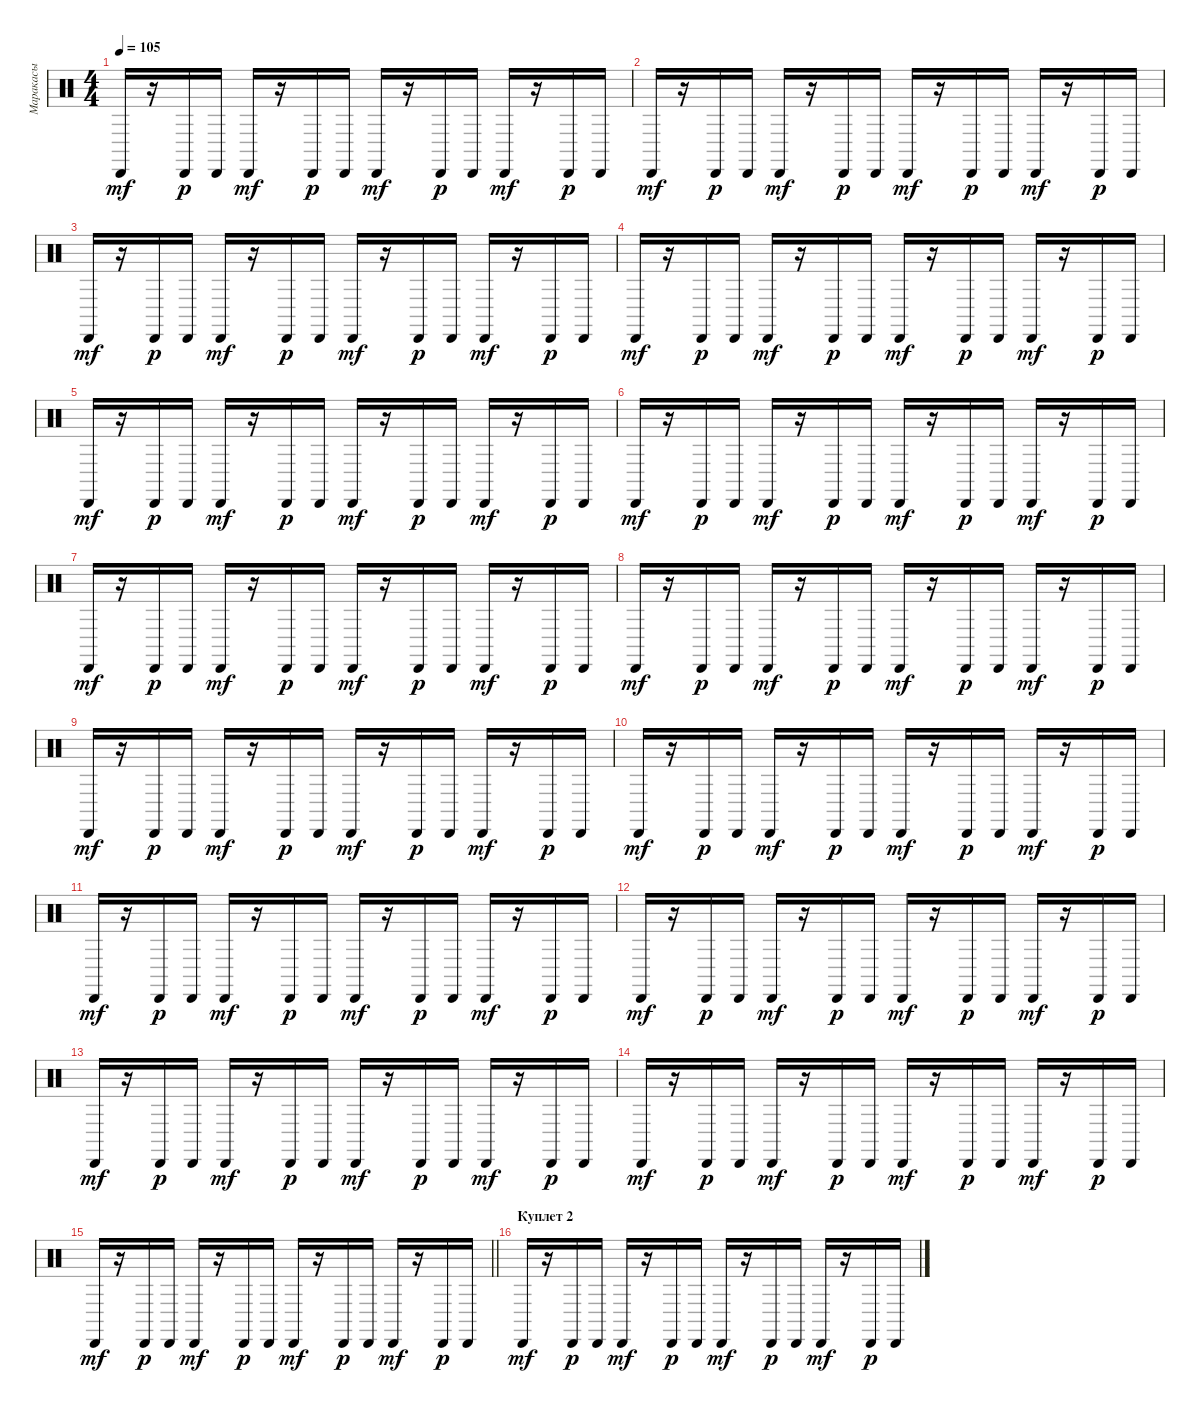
\track ("Маракасы" "Маракасы") {instrument percussion}
\staff {score}
\articulation defaults
\ts (4 4)
\tempo 105
\clef neutral
\ks c "Cabasa (hit)".16{dy mf}
r.16 "Cabasa (hit)".16{dy p} "Cabasa (hit)".16 "Cabasa (hit)".16{dy mf} r.16 "Cabasa (hit)".16{dy p} "Cabasa (hit)".16 "Cabasa (hit)".16{dy mf} r.16 "Cabasa (hit)".16{dy p} "Cabasa (hit)".16 "Cabasa (hit)".16{dy mf} r.16 "Cabasa (hit)".16{dy p} "Cabasa (hit)".16 |
"Cabasa (hit)".16{dy mf} r.16 "Cabasa (hit)".16{dy p} "Cabasa (hit)".16 "Cabasa (hit)".16{dy mf} r.16 "Cabasa (hit)".16{dy p} "Cabasa (hit)".16 "Cabasa (hit)".16{dy mf} r.16 "Cabasa (hit)".16{dy p} "Cabasa (hit)".16 "Cabasa (hit)".16{dy mf} r.16 "Cabasa (hit)".16{dy p} "Cabasa (hit)".16 |
"Cabasa (hit)".16{dy mf} r.16 "Cabasa (hit)".16{dy p} "Cabasa (hit)".16 "Cabasa (hit)".16{dy mf} r.16 "Cabasa (hit)".16{dy p} "Cabasa (hit)".16 "Cabasa (hit)".16{dy mf} r.16 "Cabasa (hit)".16{dy p} "Cabasa (hit)".16 "Cabasa (hit)".16{dy mf} r.16 "Cabasa (hit)".16{dy p} "Cabasa (hit)".16 |
"Cabasa (hit)".16{dy mf} r.16 "Cabasa (hit)".16{dy p} "Cabasa (hit)".16 "Cabasa (hit)".16{dy mf} r.16 "Cabasa (hit)".16{dy p} "Cabasa (hit)".16 "Cabasa (hit)".16{dy mf} r.16 "Cabasa (hit)".16{dy p} "Cabasa (hit)".16 "Cabasa (hit)".16{dy mf} r.16 "Cabasa (hit)".16{dy p} "Cabasa (hit)".16 |
"Cabasa (hit)".16{dy mf} r.16 "Cabasa (hit)".16{dy p} "Cabasa (hit)".16 "Cabasa (hit)".16{dy mf} r.16 "Cabasa (hit)".16{dy p} "Cabasa (hit)".16 "Cabasa (hit)".16{dy mf} r.16 "Cabasa (hit)".16{dy p} "Cabasa (hit)".16 "Cabasa (hit)".16{dy mf} r.16 "Cabasa (hit)".16{dy p} "Cabasa (hit)".16 |
"Cabasa (hit)".16{dy mf} r.16 "Cabasa (hit)".16{dy p} "Cabasa (hit)".16 "Cabasa (hit)".16{dy mf} r.16 "Cabasa (hit)".16{dy p} "Cabasa (hit)".16 "Cabasa (hit)".16{dy mf} r.16 "Cabasa (hit)".16{dy p} "Cabasa (hit)".16 "Cabasa (hit)".16{dy mf} r.16 "Cabasa (hit)".16{dy p} "Cabasa (hit)".16 |
"Cabasa (hit)".16{dy mf} r.16 "Cabasa (hit)".16{dy p} "Cabasa (hit)".16 "Cabasa (hit)".16{dy mf} r.16 "Cabasa (hit)".16{dy p} "Cabasa (hit)".16 "Cabasa (hit)".16{dy mf} r.16 "Cabasa (hit)".16{dy p} "Cabasa (hit)".16 "Cabasa (hit)".16{dy mf} r.16 "Cabasa (hit)".16{dy p} "Cabasa (hit)".16 |
"Cabasa (hit)".16{dy mf} r.16 "Cabasa (hit)".16{dy p} "Cabasa (hit)".16 "Cabasa (hit)".16{dy mf} r.16 "Cabasa (hit)".16{dy p} "Cabasa (hit)".16 "Cabasa (hit)".16{dy mf} r.16 "Cabasa (hit)".16{dy p} "Cabasa (hit)".16 "Cabasa (hit)".16{dy mf} r.16 "Cabasa (hit)".16{dy p} "Cabasa (hit)".16 |
"Cabasa (hit)".16{dy mf} r.16 "Cabasa (hit)".16{dy p} "Cabasa (hit)".16 "Cabasa (hit)".16{dy mf} r.16 "Cabasa (hit)".16{dy p} "Cabasa (hit)".16 "Cabasa (hit)".16{dy mf} r.16 "Cabasa (hit)".16{dy p} "Cabasa (hit)".16 "Cabasa (hit)".16{dy mf} r.16 "Cabasa (hit)".16{dy p} "Cabasa (hit)".16 |
"Cabasa (hit)".16{dy mf} r.16 "Cabasa (hit)".16{dy p} "Cabasa (hit)".16 "Cabasa (hit)".16{dy mf} r.16 "Cabasa (hit)".16{dy p} "Cabasa (hit)".16 "Cabasa (hit)".16{dy mf} r.16 "Cabasa (hit)".16{dy p} "Cabasa (hit)".16 "Cabasa (hit)".16{dy mf} r.16 "Cabasa (hit)".16{dy p} "Cabasa (hit)".16 |
"Cabasa (hit)".16{dy mf} r.16 "Cabasa (hit)".16{dy p} "Cabasa (hit)".16 "Cabasa (hit)".16{dy mf} r.16 "Cabasa (hit)".16{dy p} "Cabasa (hit)".16 "Cabasa (hit)".16{dy mf} r.16 "Cabasa (hit)".16{dy p} "Cabasa (hit)".16 "Cabasa (hit)".16{dy mf} r.16 "Cabasa (hit)".16{dy p} "Cabasa (hit)".16 |
"Cabasa (hit)".16{dy mf} r.16 "Cabasa (hit)".16{dy p} "Cabasa (hit)".16 "Cabasa (hit)".16{dy mf} r.16 "Cabasa (hit)".16{dy p} "Cabasa (hit)".16 "Cabasa (hit)".16{dy mf} r.16 "Cabasa (hit)".16{dy p} "Cabasa (hit)".16 "Cabasa (hit)".16{dy mf} r.16 "Cabasa (hit)".16{dy p} "Cabasa (hit)".16 |
"Cabasa (hit)".16{dy mf} r.16 "Cabasa (hit)".16{dy p} "Cabasa (hit)".16 "Cabasa (hit)".16{dy mf} r.16 "Cabasa (hit)".16{dy p} "Cabasa (hit)".16 "Cabasa (hit)".16{dy mf} r.16 "Cabasa (hit)".16{dy p} "Cabasa (hit)".16 "Cabasa (hit)".16{dy mf} r.16 "Cabasa (hit)".16{dy p} "Cabasa (hit)".16 |
"Cabasa (hit)".16{dy mf} r.16 "Cabasa (hit)".16{dy p} "Cabasa (hit)".16 "Cabasa (hit)".16{dy mf} r.16 "Cabasa (hit)".16{dy p} "Cabasa (hit)".16 "Cabasa (hit)".16{dy mf} r.16 "Cabasa (hit)".16{dy p} "Cabasa (hit)".16 "Cabasa (hit)".16{dy mf} r.16 "Cabasa (hit)".16{dy p} "Cabasa (hit)".16 |
\barLineRight lightlight "Cabasa (hit)".16{dy mf}
r.16 "Cabasa (hit)".16{dy p} "Cabasa (hit)".16 "Cabasa (hit)".16{dy mf} r.16 "Cabasa (hit)".16{dy p} "Cabasa (hit)".16 "Cabasa (hit)".16{dy mf} r.16 "Cabasa (hit)".16{dy p} "Cabasa (hit)".16 "Cabasa (hit)".16{dy mf} r.16 "Cabasa (hit)".16{dy p} "Cabasa (hit)".16 |
\section ("" "Куплет 2")
"Cabasa (hit)".16{dy mf} r.16 "Cabasa (hit)".16{dy p} "Cabasa (hit)".16 "Cabasa (hit)".16{dy mf} r.16 "Cabasa (hit)".16{dy p} "Cabasa (hit)".16 "Cabasa (hit)".16{dy mf} r.16 "Cabasa (hit)".16{dy p} "Cabasa (hit)".16 "Cabasa (hit)".16{dy mf} r.16 "Cabasa (hit)".16{dy p} "Cabasa (hit)".16
